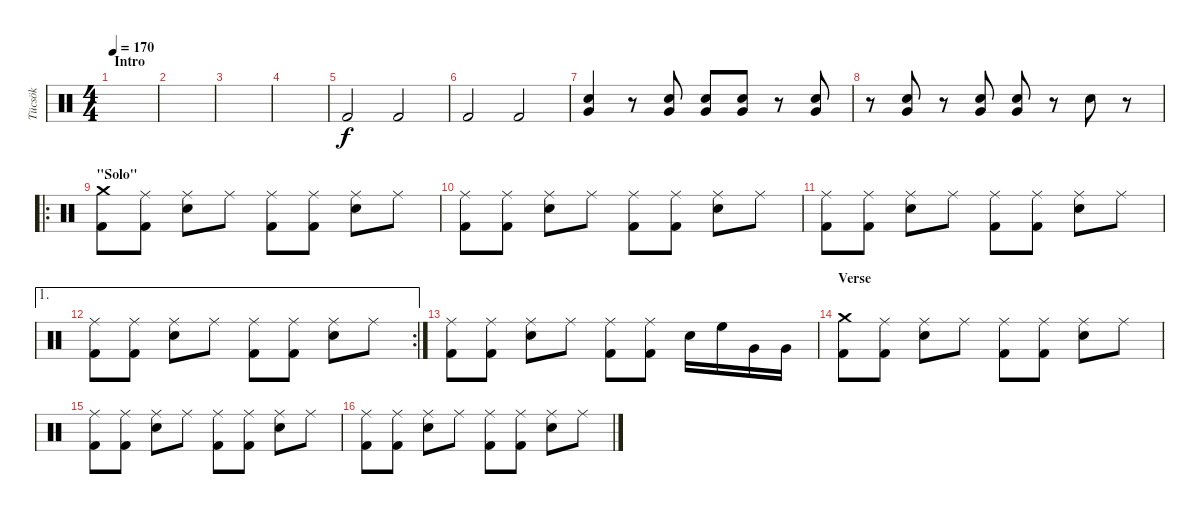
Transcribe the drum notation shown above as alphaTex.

\track ("Tücsök" "Tücsök") {instrument percussion}
\staff {score}
\articulation defaults
\ts (4 4)
\section ("" "Intro")
\tempo 170
\clef neutral
\ks c
|
|
|
|
"Kick (hit) 2".2 "Kick (hit) 2".2 |
"Kick (hit) 2".2 "Kick (hit) 2".2 |
("Electric Snare (hit)" "Very Low Tom (hit)").4 r.8 ("Electric Snare (hit)" "Very Low Tom (hit)").8 ("Electric Snare (hit)" "Very Low Tom (hit)").8 ("Electric Snare (hit)" "Very Low Tom (hit)").8 r.8 ("Electric Snare (hit)" "Very Low Tom (hit)").8 |
r.8 ("Electric Snare (hit)" "Very Low Tom (hit)").8 r.8 ("Electric Snare (hit)" "Very Low Tom (hit)").8 ("Electric Snare (hit)" "Very Low Tom (hit)").8 r.8 "Snare (hit) 2".8 r.8 |
\ro
\section ("" "\"Solo\"")
("Crash medium (hit)" "Kick (hit) 2").8 ("Ride (middle)" "Kick (hit) 2").8 ("Ride (middle)" "Electric Snare (hit)").8 "Ride (middle)".8 ("Ride (middle)" "Kick (hit) 2").8 ("Ride (middle)" "Kick (hit) 2").8 ("Ride (middle)" "Electric Snare (hit)").8 "Ride (middle)".8 |
("Ride (middle)" "Kick (hit) 2").8 ("Ride (middle)" "Kick (hit) 2").8 ("Ride (middle)" "Electric Snare (hit)").8 "Ride (middle)".8 ("Ride (middle)" "Kick (hit) 2").8 ("Ride (middle)" "Kick (hit) 2").8 ("Ride (middle)" "Electric Snare (hit)").8 "Ride (middle)".8 |
("Ride (middle)" "Kick (hit) 2").8 ("Ride (middle)" "Kick (hit) 2").8 ("Ride (middle)" "Electric Snare (hit)").8 "Ride (middle)".8 ("Ride (middle)" "Kick (hit) 2").8 ("Ride (middle)" "Kick (hit) 2").8 ("Ride (middle)" "Electric Snare (hit)").8 "Ride (middle)".8 |
\ae 1
\rc 2
("Ride (middle)" "Kick (hit) 2").8 ("Ride (middle)" "Kick (hit) 2").8 ("Ride (middle)" "Electric Snare (hit)").8 "Ride (middle)".8 ("Ride (middle)" "Kick (hit) 2").8 ("Ride (middle)" "Kick (hit) 2").8 ("Ride (middle)" "Electric Snare (hit)").8 "Ride (middle)".8 |
("Ride (middle)" "Kick (hit) 2").8 ("Ride (middle)" "Kick (hit) 2").8 ("Ride (middle)" "Electric Snare (hit)").8 "Ride (middle)".8 ("Ride (middle)" "Kick (hit) 2").8 ("Ride (middle)" "Kick (hit) 2").8 "Electric Snare (hit)".16 "High Floor Tom (hit)".16 "Very Low Tom (hit)".16 "Very Low Tom (hit)".16 |
\section ("" "Verse")
("Crash medium (hit)" "Kick (hit) 2").8 ("Ride (middle)" "Kick (hit) 2").8 ("Ride (middle)" "Electric Snare (hit)").8 "Ride (middle)".8 ("Ride (middle)" "Kick (hit) 2").8 ("Ride (middle)" "Kick (hit) 2").8 ("Ride (middle)" "Electric Snare (hit)").8 "Ride (middle)".8 |
("Ride (middle)" "Kick (hit) 2").8 ("Ride (middle)" "Kick (hit) 2").8 ("Ride (middle)" "Electric Snare (hit)").8 "Ride (middle)".8 ("Ride (middle)" "Kick (hit) 2").8 ("Ride (middle)" "Kick (hit) 2").8 ("Ride (middle)" "Electric Snare (hit)").8 "Ride (middle)".8 |
("Ride (middle)" "Kick (hit) 2").8 ("Ride (middle)" "Kick (hit) 2").8 ("Ride (middle)" "Electric Snare (hit)").8 "Ride (middle)".8 ("Ride (middle)" "Kick (hit) 2").8 ("Ride (middle)" "Kick (hit) 2").8 ("Ride (middle)" "Electric Snare (hit)").8 "Ride (middle)".8
